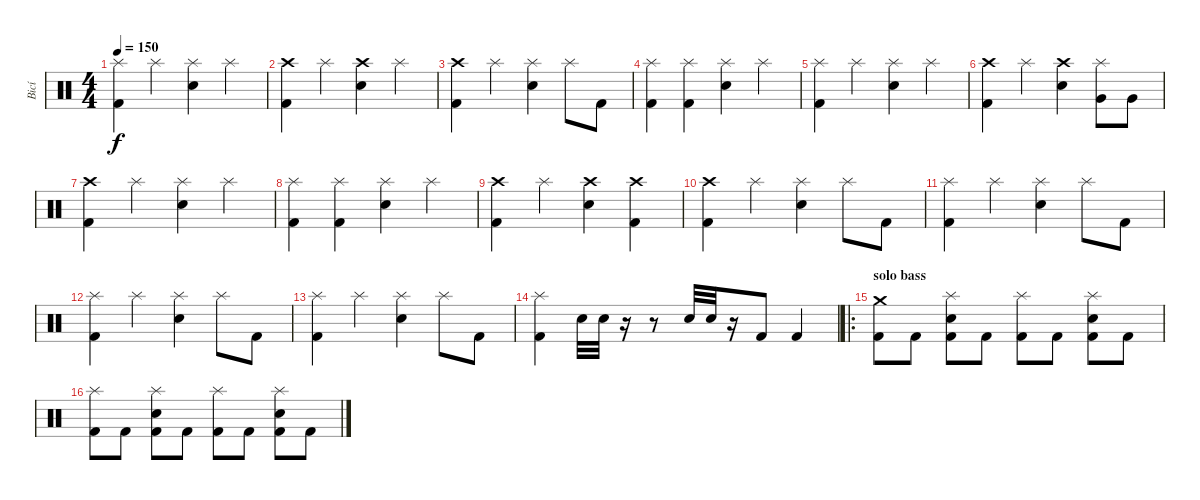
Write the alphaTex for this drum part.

\track ("Bicí" "Bicí") {instrument percussion}
\staff {score}
\articulation defaults
\ts (4 4)
\tempo 150
\clef neutral
\ks c
("Splash (hit)" "Kick (hit) 2").4{dy f} "Splash (hit)".4 ("Splash (hit)" "Electric Snare (hit)").4 "Splash (hit)".4 |
("Crash high (hit)" "Kick (hit) 2").4 "Splash (hit)".4 ("Crash high (hit)" "Electric Snare (hit)").4 "Splash (hit)".4 |
("Crash high (hit)" "Kick (hit) 2").4 "Splash (hit)".4 ("Splash (hit)" "Electric Snare (hit)").4 "Splash (hit)".8 "Kick (hit) 2".8 |
("Splash (hit)" "Kick (hit) 2").4 ("Splash (hit)" "Kick (hit) 2").4 ("Splash (hit)" "Electric Snare (hit)").4 "Splash (hit)".4 |
("Splash (hit)" "Kick (hit) 2").4 "Splash (hit)".4 ("Splash (hit)" "Electric Snare (hit)").4 "Splash (hit)".4 |
("Crash high (hit)" "Kick (hit) 2").4 "Splash (hit)".4 ("Crash high (hit)" "Electric Snare (hit)").4 ("Splash (hit)" "Very Low Tom (hit)").8 "Very Low Tom (hit)".8 |
("Crash high (hit)" "Kick (hit) 2").4 "Splash (hit)".4 ("Splash (hit)" "Electric Snare (hit)").4 "Splash (hit)".4 |
("Splash (hit)" "Kick (hit) 2").4 ("Splash (hit)" "Kick (hit) 2").4 ("Splash (hit)" "Electric Snare (hit)").4 "Splash (hit)".4 |
("Crash high (hit)" "Kick (hit) 2").4 "Splash (hit)".4 ("Crash high (hit)" "Electric Snare (hit)").4 ("Crash high (hit)" "Kick (hit) 2").4 |
("Crash high (hit)" "Kick (hit) 2").4 "Splash (hit)".4 ("Splash (hit)" "Electric Snare (hit)").4 "Splash (hit)".8 "Kick (hit) 2".8 |
("Splash (hit)" "Kick (hit) 2").4 "Splash (hit)".4 ("Splash (hit)" "Electric Snare (hit)").4 "Splash (hit)".8 "Kick (hit) 2".8 |
("Splash (hit)" "Kick (hit) 2").4 "Splash (hit)".4 ("Splash (hit)" "Electric Snare (hit)").4 "Splash (hit)".8 "Kick (hit) 2".8 |
("Splash (hit)" "Kick (hit) 2").4 "Splash (hit)".4 ("Splash (hit)" "Electric Snare (hit)").4 "Splash (hit)".8 "Kick (hit) 2".8 |
("Splash (hit)" "Kick (hit) 2").4 "Electric Snare (hit)".32 "Electric Snare (hit)".32 r.16 r.8 "Electric Snare (hit)".32 "Electric Snare (hit)".32 r.16 "Kick (hit) 2".8 "Kick (hit) 2".4 |
\ro
\section ("" "solo bass")
("Crash medium (hit)" "Kick (hit) 2").8 "Kick (hit) 2".8 ("Splash (hit)" "Electric Snare (hit)" "Kick (hit) 2").8 "Kick (hit) 2".8 ("Splash (hit)" "Kick (hit) 2").8 "Kick (hit) 2".8 ("Splash (hit)" "Electric Snare (hit)" "Kick (hit) 2").8 "Kick (hit) 2".8 |
("Splash (hit)" "Kick (hit) 2").8 "Kick (hit) 2".8 ("Splash (hit)" "Electric Snare (hit)" "Kick (hit) 2").8 "Kick (hit) 2".8 ("Splash (hit)" "Kick (hit) 2").8 "Kick (hit) 2".8 ("Splash (hit)" "Electric Snare (hit)" "Kick (hit) 2").8 "Kick (hit) 2".8
